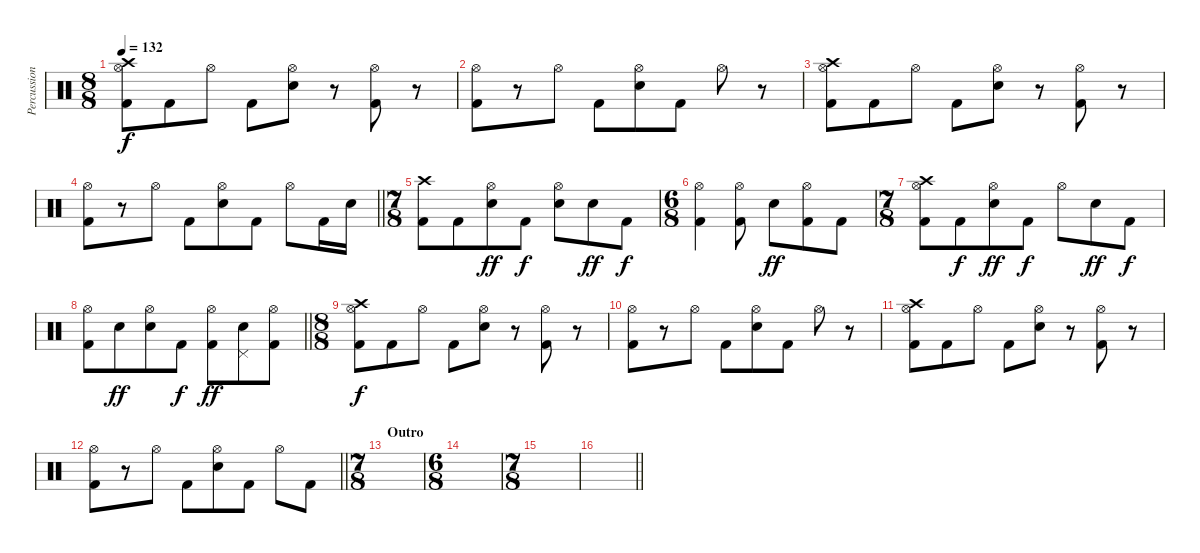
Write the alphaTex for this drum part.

\track ("Percussion" "Percussion") {instrument percussion}
\staff {score}
\articulation defaults
\ts (8 8)
\tempo 132
\clef neutral
\ks c
("Hi-Hat (open)" "Crash high (hit)" "Kick (hit) 2").8{dy f} "Kick (hit) 2".8 "Hi-Hat (open)".8 "Kick (hit) 2".8 ("Hi-Hat (open)" "Electric Snare (hit)").8 r.8 ("Hi-Hat (open)" "Kick (hit) 2").8 r.8 |
("Hi-Hat (open)" "Kick (hit) 2").8 r.8 "Hi-Hat (open)".8 "Kick (hit) 2".8 ("Hi-Hat (open)" "Electric Snare (hit)").8 "Kick (hit) 2".8 "Hi-Hat (open)".8 r.8 |
("Hi-Hat (open)" "Crash high (hit)" "Kick (hit) 2").8 "Kick (hit) 2".8 "Hi-Hat (open)".8 "Kick (hit) 2".8 ("Hi-Hat (open)" "Electric Snare (hit)").8 r.8 ("Hi-Hat (open)" "Kick (hit) 2").8 r.8 |
\barLineRight lightlight
("Hi-Hat (open)" "Kick (hit) 2").8 r.8 "Hi-Hat (open)".8 "Kick (hit) 2".8 ("Hi-Hat (open)" "Electric Snare (hit)").8 "Kick (hit) 2".8 "Hi-Hat (open)".8 "Kick (hit) 2".16 "Electric Snare (hit)".16 |
\ts (7 8)
("Crash high (hit)" "Kick (hit) 2").8 "Kick (hit) 2".8 ("Hi-Hat (open)" "Electric Snare (hit)").8{dy ff} "Kick (hit) 2".8{dy f} ("Hi-Hat (open)" "Electric Snare (hit)").8 "Electric Snare (hit)".8{dy ff} "Kick (hit) 2".8{dy f} |
\ts (6 8)
("Hi-Hat (open)" "Kick (hit) 2").4 ("Hi-Hat (open)" "Kick (hit) 2").8 "Electric Snare (hit)".8{dy ff} ("Hi-Hat (open)" "Kick (hit) 2").8 "Kick (hit) 2".8 |
\ts (7 8)
("Hi-Hat (open)" "Crash high (hit)" "Kick (hit) 2").8 "Kick (hit) 2".8{dy f} ("Hi-Hat (open)" "Electric Snare (hit)").8{dy ff} "Kick (hit) 2".8{dy f} "Hi-Hat (open)".8 "Electric Snare (hit)".8{dy ff} "Kick (hit) 2".8{dy f} |
\barLineRight lightlight
("Hi-Hat (open)" "Kick (hit) 2").8 "Electric Snare (hit)".8{dy ff} ("Hi-Hat (open)" "Electric Snare (hit)").8 "Kick (hit) 2".8{dy f} ("Hi-Hat (open)" "Kick (hit) 2").8{dy ff} ("Pedal Hi-Hat (hit)" "Electric Snare (hit)").8 ("Hi-Hat (open)" "Kick (hit) 2").8 |
\ts (8 8)
("Hi-Hat (open)" "Crash high (hit)" "Kick (hit) 2").8{dy f} "Kick (hit) 2".8 "Hi-Hat (open)".8 "Kick (hit) 2".8 ("Hi-Hat (open)" "Electric Snare (hit)").8 r.8 ("Hi-Hat (open)" "Kick (hit) 2").8 r.8 |
("Hi-Hat (open)" "Kick (hit) 2").8 r.8 "Hi-Hat (open)".8 "Kick (hit) 2".8 ("Hi-Hat (open)" "Electric Snare (hit)").8 "Kick (hit) 2".8 "Hi-Hat (open)".8 r.8 |
("Hi-Hat (open)" "Crash high (hit)" "Kick (hit) 2").8 "Kick (hit) 2".8 "Hi-Hat (open)".8 "Kick (hit) 2".8 ("Hi-Hat (open)" "Electric Snare (hit)").8 r.8 ("Hi-Hat (open)" "Kick (hit) 2").8 r.8 |
\barLineRight lightlight
("Hi-Hat (open)" "Kick (hit) 2").8 r.8 "Hi-Hat (open)".8 "Kick (hit) 2".8 ("Hi-Hat (open)" "Electric Snare (hit)").8 "Kick (hit) 2".8 "Hi-Hat (open)".8 "Kick (hit) 2".8 |
\ts (7 8)
\section ("" "Outro")
|
\ts (6 8)
|
\ts (7 8)
|
\barLineRight lightlight
